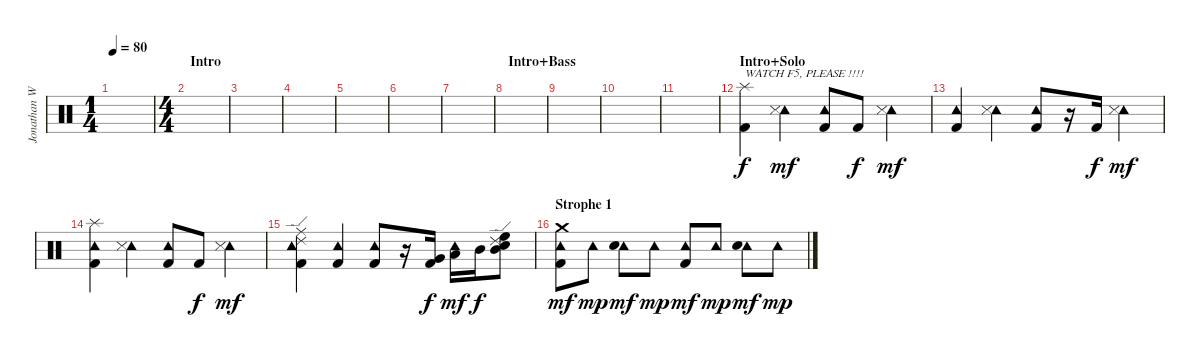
\track ("Jonathan Wenzel" "Jonathan W") {instrument percussion}
\staff {score}
\articulation defaults
\ts (1 4)
\tempo 80
\clef neutral
\ks c
|
\ts (4 4)
\section ("" "Intro")
|
|
|
|
\section ("" "")
|
|
\section ("" "Intro+Bass")
|
|
|
|
\section ("" "Intro+Solo")
("Splash (hit)" "Kick (hit) 2").4{txt "WATCH F5, PLEASE !!!!"} ("Tambourine (hit)" "Snare (side stick) 3").4{dy mf} ("Tambourine (hit)" "Kick (hit) 2").8 "Kick (hit) 2".8{dy f} ("Tambourine (hit)" "Snare (side stick) 3").4{dy mf} |
("Tambourine (hit)" "Kick (hit) 2").4 ("Tambourine (hit)" "Snare (side stick) 3").4 ("Tambourine (hit)" "Kick (hit) 2").8 r.16 "Kick (hit) 2".16{dy f} ("Tambourine (hit)" "Snare (side stick) 3").4{dy mf} |
("Splash (hit)" "Tambourine (hit)" "Kick (hit) 2").4 ("Tambourine (hit)" "Snare (side stick) 3").4 ("Tambourine (hit)" "Kick (hit) 2").8 "Kick (hit) 2".8{dy f} ("Tambourine (hit)" "Snare (side stick) 3").4{dy mf} |
("Ride (edge) 2" "Ride (middle)" "Tambourine (hit)" "Kick (hit) 2").4 ("Tambourine (hit)" "Kick (hit) 2").4 ("Tambourine (hit)" "Kick (hit) 2").8 r.16 ("Very Low Tom (hit)" "Kick (hit) 2").16{dy f} ("Tambourine (hit)" "Low Tom (hit)").16{dy mf} "Mid Tom (hit)".16{dy f} ("Ride (edge) 2" "High Floor Tom (hit)" "Mid Tom (hit)" "Electric Snare (hit)").8 |
\section ("" "Strophe 1")
("Tambourine (hit)" "Crash medium (hit)" "Kick (hit) 2").8{dy mf} "Tambourine (hit)".8{dy mp} ("Tambourine (hit)" "Electric Snare (hit)").8{dy mf} "Tambourine (hit)".8{dy mp} ("Tambourine (hit)" "Kick (hit) 2").8{dy mf} "Tambourine (hit)".8{dy mp} ("Tambourine (hit)" "Electric Snare (hit)").8{dy mf} "Tambourine (hit)".8{dy mp}
